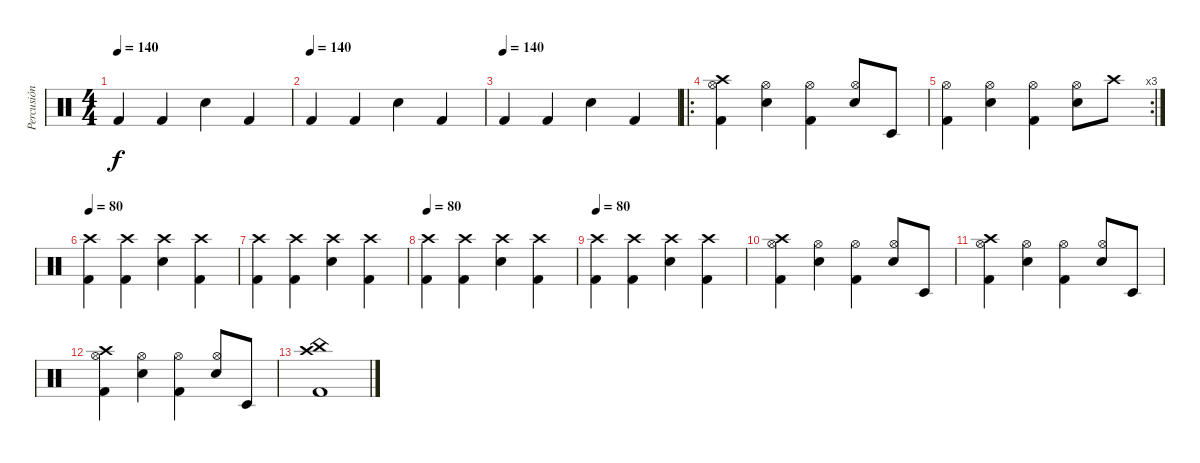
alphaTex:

\track ("Percusión" "Percusión") {instrument percussion}
\staff {score}
\articulation defaults
\ts (4 4)
\tempo 140
\clef neutral
\ks c "Kick (hit) 2".4{dy f} "Kick (hit) 2".4 "Snare (hit) 2".4 "Kick (hit) 2".4
|
\tempo (140)
"Kick (hit) 2".4 "Kick (hit) 2".4 "Snare (hit) 2".4 "Kick (hit) 2".4 |
\tempo (140)
"Kick (hit) 2".4 "Kick (hit) 2".4 "Snare (hit) 2".4 "Kick (hit) 2".4 |
\ro
("Crash high (hit)" "Hi-Hat (open)" "Kick (hit) 2").4 ("Hi-Hat (open)" "Snare (hit) 2").4 ("Hi-Hat (open)" "Kick (hit) 2").4 ("Hi-Hat (open)" "Snare (hit) 2").8 "Timbale low (hit)".8 |
\rc 3
("Hi-Hat (open)" "Kick (hit) 2").4 ("Hi-Hat (open)" "Snare (hit) 2").4 ("Hi-Hat (open)" "Kick (hit) 2").4 ("Hi-Hat (open)" "Snare (hit) 2").8 "Crash high (hit)".8 |
\tempo 80
("Crash high (hit)" "Kick (hit) 2").4 ("Crash high (hit)" "Kick (hit) 2").4 ("Crash high (hit)" "Snare (hit) 2").4 ("Crash high (hit)" "Kick (hit) 2").4 |
("Crash high (hit)" "Kick (hit) 2").4 ("Crash high (hit)" "Kick (hit) 2").4 ("Crash high (hit)" "Snare (hit) 2").4 ("Crash high (hit)" "Kick (hit) 2").4 |
\tempo 80
("Crash high (hit)" "Kick (hit) 2").4 ("Crash high (hit)" "Kick (hit) 2").4 ("Crash high (hit)" "Snare (hit) 2").4 ("Crash high (hit)" "Kick (hit) 2").4 |
\tempo 80
("Crash high (hit)" "Kick (hit) 2").4 ("Crash high (hit)" "Kick (hit) 2").4 ("Crash high (hit)" "Snare (hit) 2").4 ("Crash high (hit)" "Kick (hit) 2").4 |
("Crash high (hit)" "Hi-Hat (open)" "Kick (hit) 2").4 ("Hi-Hat (open)" "Snare (hit) 2").4 ("Hi-Hat (open)" "Kick (hit) 2").4 ("Hi-Hat (open)" "Snare (hit) 2").8 "Timbale low (hit)".8 |
("Crash high (hit)" "Hi-Hat (open)" "Kick (hit) 2").4 ("Hi-Hat (open)" "Snare (hit) 2").4 ("Hi-Hat (open)" "Kick (hit) 2").4 ("Hi-Hat (open)" "Snare (hit) 2").8 "Timbale low (hit)".8 |
("Crash high (hit)" "Hi-Hat (open)" "Kick (hit) 2").4 ("Hi-Hat (open)" "Snare (hit) 2").4 ("Hi-Hat (open)" "Kick (hit) 2").4 ("Hi-Hat (open)" "Snare (hit) 2").8 "Timbale low (hit)".8 |
("Crash high (hit)" "Kick (hit) 2" "China (hit)").1
